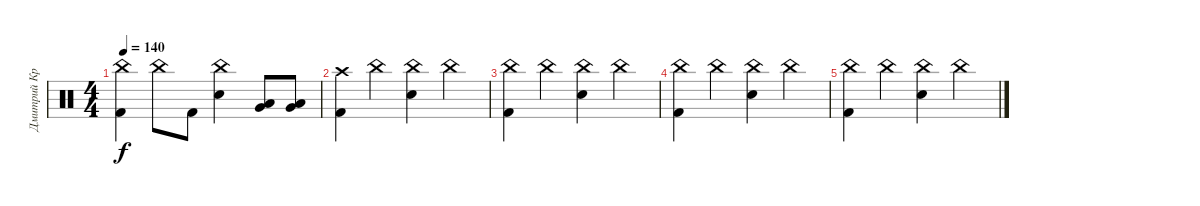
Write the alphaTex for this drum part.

\track ("Дмитрий Кривенков" "Дмитрий Кр") {instrument percussion}
\staff {score}
\articulation defaults
\ts (4 4)
\tempo 140
\clef neutral
\ks c
("China (hit)" "Kick (hit) 2").4{dy f} "China (hit)".8 "Kick (hit) 2".8 ("China (hit)" "Electric Snare (hit)").4 ("Very Low Tom (hit)" "Low Floor Tom (hit)").8 ("Very Low Tom (hit)" "Low Floor Tom (hit)").8 |
("Crash high (hit)" "Kick (hit) 2").4{volume 0} "China (hit)".4 ("China (hit)" "Electric Snare (hit)").4 "China (hit)".4 |
("China (hit)" "Kick (hit) 2").4 "China (hit)".4 ("China (hit)" "Electric Snare (hit)").4 "China (hit)".4 |
("China (hit)" "Kick (hit) 2").4 "China (hit)".4 ("China (hit)" "Electric Snare (hit)").4 "China (hit)".4 |
("China (hit)" "Kick (hit) 2").4 "China (hit)".4 ("China (hit)" "Electric Snare (hit)").4 "China (hit)".4
